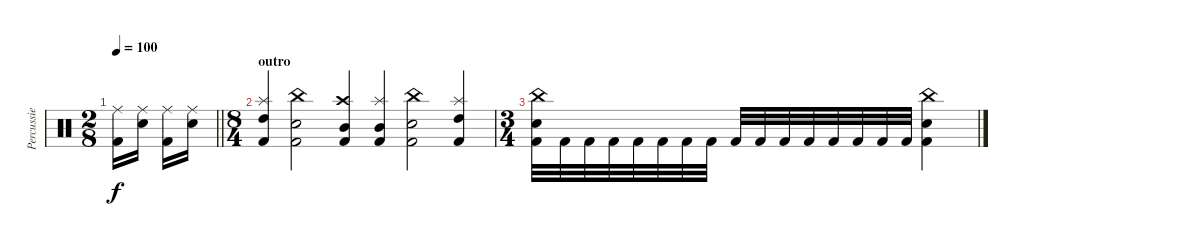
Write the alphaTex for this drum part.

\track ("Percussie" "Percussie") {instrument percussion}
\staff {score}
\articulation defaults
\ts (2 8)
\tempo 100
\clef neutral
\barLineRight lightlight
\ks c
("Ride (middle)" "Kick (hit) 2").16{dy f} ("Ride (middle)" "Electric Snare (hit)").16 ("Ride (middle)" "Kick (hit) 2").16 ("Ride (middle)" "Electric Snare (hit)").16 |
\ts (8 4)
\section ("" "outro")
("Splash (hit)" "High Tom (hit)" "Kick (hit) 2").4 ("China (hit)" "Electric Snare (hit)" "Kick (hit) 2").2 ("Crash high (hit)" "Mid Tom (hit)" "Kick (hit) 2").4 ("Splash (hit)" "Mid Tom (hit)" "Kick (hit) 2").4 ("China (hit)" "Electric Snare (hit)" "Kick (hit) 2").2 ("Splash (hit)" "High Tom (hit)" "Kick (hit) 2").4 |
\ts (3 4)
("China (hit)" "Electric Snare (hit)" "Kick (hit) 2").32 "Kick (hit) 2".32 "Kick (hit) 2".32 "Kick (hit) 2".32 "Kick (hit) 2".32 "Kick (hit) 2".32 "Kick (hit) 2".32 "Kick (hit) 2".32 "Kick (hit) 2".32 "Kick (hit) 2".32 "Kick (hit) 2".32 "Kick (hit) 2".32 "Kick (hit) 2".32 "Kick (hit) 2".32 "Kick (hit) 2".32 "Kick (hit) 2".32 ("China (hit)" "Electric Snare (hit)" "Kick (hit) 2").4
